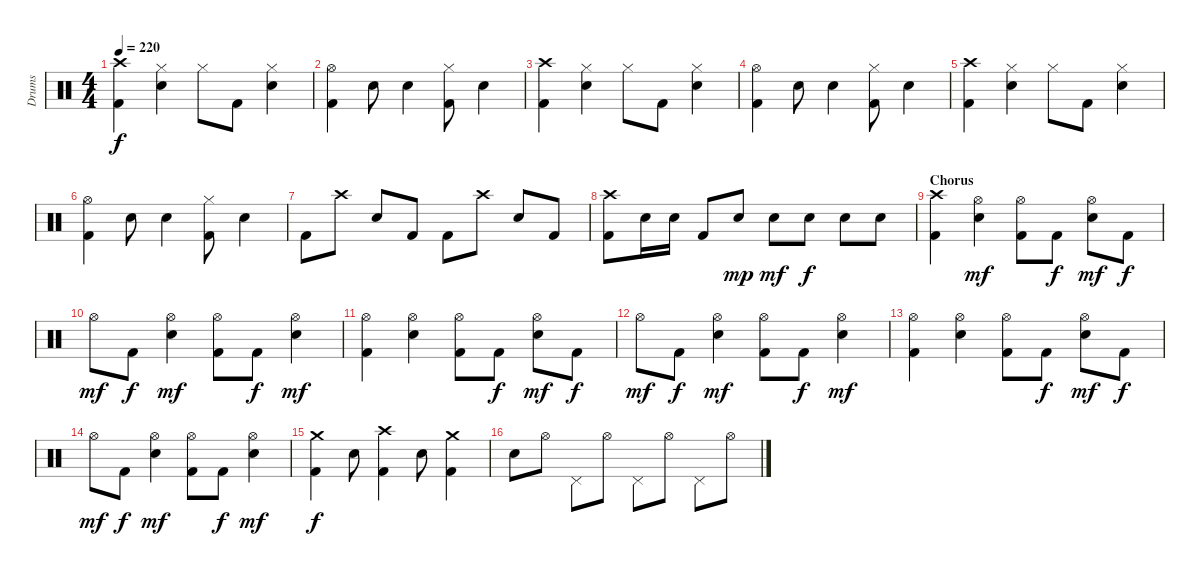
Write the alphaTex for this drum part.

\track ("Drums" "Drums") {instrument percussion}
\staff {score}
\articulation defaults
\ts (4 4)
\tempo 220
\clef neutral
\ks c
("Crash high (hit)" "Kick (hit) 2").4{dy f} ("Hi-Hat (closed)" "Snare (hit) 2").4 "Hi-Hat (closed)".8 "Kick (hit) 2".8 ("Hi-Hat (closed)" "Snare (hit) 2").4 |
("Hi-Hat (open)" "Kick (hit) 2").4 "Snare (hit) 2".8 "Snare (hit) 2".4 ("Hi-Hat (closed)" "Kick (hit) 2").8 "Snare (hit) 2".4 |
("Crash high (hit)" "Kick (hit) 2").4 ("Hi-Hat (closed)" "Snare (hit) 2").4 "Hi-Hat (closed)".8 "Kick (hit) 2".8 ("Hi-Hat (closed)" "Snare (hit) 2").4 |
("Hi-Hat (open)" "Kick (hit) 2").4 "Snare (hit) 2".8 "Snare (hit) 2".4 ("Hi-Hat (closed)" "Kick (hit) 2").8 "Snare (hit) 2".4 |
("Crash high (hit)" "Kick (hit) 2").4 ("Hi-Hat (closed)" "Snare (hit) 2").4 "Hi-Hat (closed)".8 "Kick (hit) 2".8 ("Hi-Hat (closed)" "Snare (hit) 2").4 |
("Hi-Hat (open)" "Kick (hit) 2").4 "Snare (hit) 2".8 "Snare (hit) 2".4 ("Hi-Hat (closed)" "Kick (hit) 2").8 "Snare (hit) 2".4 |
"Kick (hit) 2".8 "Crash high (hit)".8 "Snare (hit) 2".8 "Kick (hit) 2".8 "Kick (hit) 2".8 "Crash high (hit)".8 "Snare (hit) 2".8 "Kick (hit) 2".8 |
("Crash high (hit)" "Kick (hit) 2").8 "Snare (hit) 2".16 "Snare (hit) 2".16 "Kick (hit) 2".8 "Snare (hit) 2".8{dy mp} "Snare (hit) 2".8{dy mf} "Snare (hit) 2".8{dy f} "Snare (hit) 2".8 "Snare (hit) 2".8 |
\section ("" "Chorus")
("Crash high (hit)" "Kick (hit) 2").4 ("Hi-Hat (open)" "Snare (hit) 2").4{dy mf} ("Hi-Hat (open)" "Kick (hit) 2").8 "Kick (hit) 2".8{dy f} ("Hi-Hat (open)" "Snare (hit) 2").8{dy mf} "Kick (hit) 2".8{dy f} |
"Hi-Hat (open)".8{dy mf} "Kick (hit) 2".8{dy f} ("Hi-Hat (open)" "Snare (hit) 2").4{dy mf} ("Hi-Hat (open)" "Kick (hit) 2").8 "Kick (hit) 2".8{dy f} ("Hi-Hat (open)" "Snare (hit) 2").4{dy mf} |
("Hi-Hat (open)" "Kick (hit) 2").4 ("Hi-Hat (open)" "Snare (hit) 2").4 ("Hi-Hat (open)" "Kick (hit) 2").8 "Kick (hit) 2".8{dy f} ("Hi-Hat (open)" "Snare (hit) 2").8{dy mf} "Kick (hit) 2".8{dy f} |
"Hi-Hat (open)".8{dy mf} "Kick (hit) 2".8{dy f} ("Hi-Hat (open)" "Snare (hit) 2").4{dy mf} ("Hi-Hat (open)" "Kick (hit) 2").8 "Kick (hit) 2".8{dy f} ("Hi-Hat (open)" "Snare (hit) 2").4{dy mf} |
("Hi-Hat (open)" "Kick (hit) 2").4 ("Hi-Hat (open)" "Snare (hit) 2").4 ("Hi-Hat (open)" "Kick (hit) 2").8 "Kick (hit) 2".8{dy f} ("Hi-Hat (open)" "Snare (hit) 2").8{dy mf} "Kick (hit) 2".8{dy f} |
"Hi-Hat (open)".8{dy mf} "Kick (hit) 2".8{dy f} ("Hi-Hat (open)" "Snare (hit) 2").4{dy mf} ("Hi-Hat (open)" "Kick (hit) 2").8 "Kick (hit) 2".8{dy f} ("Hi-Hat (open)" "Snare (hit) 2").4{dy mf} |
("Crash medium (hit)" "Kick (hit) 2").4{dy f} "Snare (hit) 2".8 ("Crash high (hit)" "Kick (hit) 2").4 "Snare (hit) 2".8 ("Crash medium (hit)" "Kick (hit) 2").4 |
"Snare (hit) 2".8 "Hi-Hat (open)".8 "Pedal Hi-Hat (hit)".8 "Hi-Hat (open)".8 "Pedal Hi-Hat (hit)".8 "Hi-Hat (open)".8 "Pedal Hi-Hat (hit)".8 "Hi-Hat (open)".8
